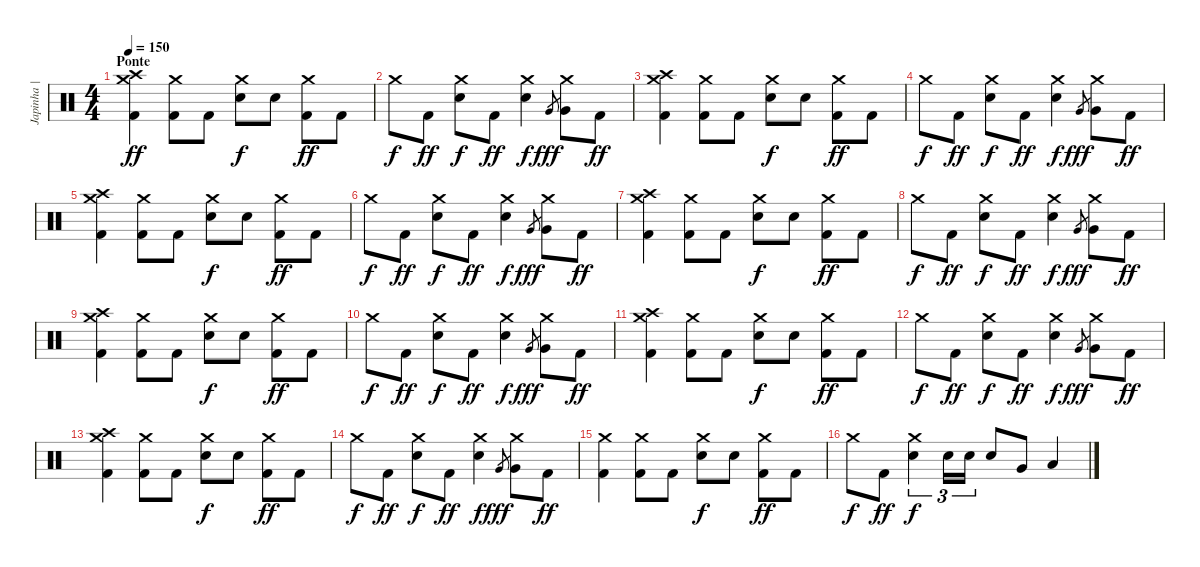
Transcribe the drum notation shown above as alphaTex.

\track ("Japinha | Bateria" "Japinha | ") {instrument percussion}
\staff {score}
\articulation defaults
\ts (4 4)
\section ("" "Ponte")
\tempo 150
\clef neutral
\ks c
("Crash medium (hit)" "Crash high (hit)" "Kick (hit) 2").4{dy ff} ("Crash medium (hit)" "Kick (hit) 2").8 "Kick (hit) 2".8 ("Crash medium (hit)" "Electric Snare (hit)").8{dy f} "Electric Snare (hit)".8 ("Crash medium (hit)" "Kick (hit) 2").8{dy ff} "Kick (hit) 2".8 |
"Crash medium (hit)".8{dy f} "Kick (hit) 2".8{dy ff} ("Crash medium (hit)" "Electric Snare (hit)").8{dy f} "Kick (hit) 2".8{dy ff} ("Crash medium (hit)" "Electric Snare (hit)").4{dy f} "Very Low Tom (hit)".8{gr dy fff} ("Crash medium (hit)" "Very Low Tom (hit)").8 "Kick (hit) 2".8{dy ff} |
("Crash medium (hit)" "Crash high (hit)" "Kick (hit) 2").4 ("Crash medium (hit)" "Kick (hit) 2").8 "Kick (hit) 2".8 ("Crash medium (hit)" "Electric Snare (hit)").8{dy f} "Electric Snare (hit)".8 ("Crash medium (hit)" "Kick (hit) 2").8{dy ff} "Kick (hit) 2".8 |
"Crash medium (hit)".8{dy f} "Kick (hit) 2".8{dy ff} ("Crash medium (hit)" "Electric Snare (hit)").8{dy f} "Kick (hit) 2".8{dy ff} ("Crash medium (hit)" "Electric Snare (hit)").4{dy f} "Very Low Tom (hit)".8{gr dy fff} ("Crash medium (hit)" "Very Low Tom (hit)").8 "Kick (hit) 2".8{dy ff} |
("Crash medium (hit)" "Crash high (hit)" "Kick (hit) 2").4 ("Crash medium (hit)" "Kick (hit) 2").8 "Kick (hit) 2".8 ("Crash medium (hit)" "Electric Snare (hit)").8{dy f} "Electric Snare (hit)".8 ("Crash medium (hit)" "Kick (hit) 2").8{dy ff} "Kick (hit) 2".8 |
"Crash medium (hit)".8{dy f} "Kick (hit) 2".8{dy ff} ("Crash medium (hit)" "Electric Snare (hit)").8{dy f} "Kick (hit) 2".8{dy ff} ("Crash medium (hit)" "Electric Snare (hit)").4{dy f} "Very Low Tom (hit)".8{gr dy fff} ("Crash medium (hit)" "Very Low Tom (hit)").8 "Kick (hit) 2".8{dy ff} |
("Crash medium (hit)" "Crash high (hit)" "Kick (hit) 2").4 ("Crash medium (hit)" "Kick (hit) 2").8 "Kick (hit) 2".8 ("Crash medium (hit)" "Electric Snare (hit)").8{dy f} "Electric Snare (hit)".8 ("Crash medium (hit)" "Kick (hit) 2").8{dy ff} "Kick (hit) 2".8 |
"Crash medium (hit)".8{dy f} "Kick (hit) 2".8{dy ff} ("Crash medium (hit)" "Electric Snare (hit)").8{dy f} "Kick (hit) 2".8{dy ff} ("Crash medium (hit)" "Electric Snare (hit)").4{dy f} "Very Low Tom (hit)".8{gr dy fff} ("Crash medium (hit)" "Very Low Tom (hit)").8 "Kick (hit) 2".8{dy ff} |
("Crash medium (hit)" "Crash high (hit)" "Kick (hit) 2").4 ("Crash medium (hit)" "Kick (hit) 2").8 "Kick (hit) 2".8 ("Crash medium (hit)" "Electric Snare (hit)").8{dy f} "Electric Snare (hit)".8 ("Crash medium (hit)" "Kick (hit) 2").8{dy ff} "Kick (hit) 2".8 |
"Crash medium (hit)".8{dy f} "Kick (hit) 2".8{dy ff} ("Crash medium (hit)" "Electric Snare (hit)").8{dy f} "Kick (hit) 2".8{dy ff} ("Crash medium (hit)" "Electric Snare (hit)").4{dy f} "Very Low Tom (hit)".8{gr dy fff} ("Crash medium (hit)" "Very Low Tom (hit)").8 "Kick (hit) 2".8{dy ff} |
("Crash medium (hit)" "Crash high (hit)" "Kick (hit) 2").4 ("Crash medium (hit)" "Kick (hit) 2").8 "Kick (hit) 2".8 ("Crash medium (hit)" "Electric Snare (hit)").8{dy f} "Electric Snare (hit)".8 ("Crash medium (hit)" "Kick (hit) 2").8{dy ff} "Kick (hit) 2".8 |
"Crash medium (hit)".8{dy f} "Kick (hit) 2".8{dy ff} ("Crash medium (hit)" "Electric Snare (hit)").8{dy f} "Kick (hit) 2".8{dy ff} ("Crash medium (hit)" "Electric Snare (hit)").4{dy f} "Very Low Tom (hit)".8{gr dy fff} ("Crash medium (hit)" "Very Low Tom (hit)").8 "Kick (hit) 2".8{dy ff} |
("Crash medium (hit)" "Crash high (hit)" "Kick (hit) 2").4 ("Crash medium (hit)" "Kick (hit) 2").8 "Kick (hit) 2".8 ("Crash medium (hit)" "Electric Snare (hit)").8{dy f} "Electric Snare (hit)".8 ("Crash medium (hit)" "Kick (hit) 2").8{dy ff} "Kick (hit) 2".8 |
"Crash medium (hit)".8{dy f} "Kick (hit) 2".8{dy ff} ("Crash medium (hit)" "Electric Snare (hit)").8{dy f} "Kick (hit) 2".8{dy ff} ("Crash medium (hit)" "Electric Snare (hit)").4{dy f} "Very Low Tom (hit)".8{gr dy fff} ("Crash medium (hit)" "Very Low Tom (hit)").8 "Kick (hit) 2".8{dy ff} |
("Crash medium (hit)" "Kick (hit) 2").4 ("Crash medium (hit)" "Kick (hit) 2").8 "Kick (hit) 2".8 ("Crash medium (hit)" "Electric Snare (hit)").8{dy f} "Electric Snare (hit)".8 ("Crash medium (hit)" "Kick (hit) 2").8{dy ff} "Kick (hit) 2".8 |
"Crash medium (hit)".8{dy f} "Kick (hit) 2".8{dy ff} ("Crash medium (hit)" "Electric Snare (hit)").4{tu (3 2) dy f} "Electric Snare (hit)".16{tu (3 2)} "Electric Snare (hit)".16{tu (3 2)} "Electric Snare (hit)".8 "Very Low Tom (hit)".8 "Low Tom (hit)".4
